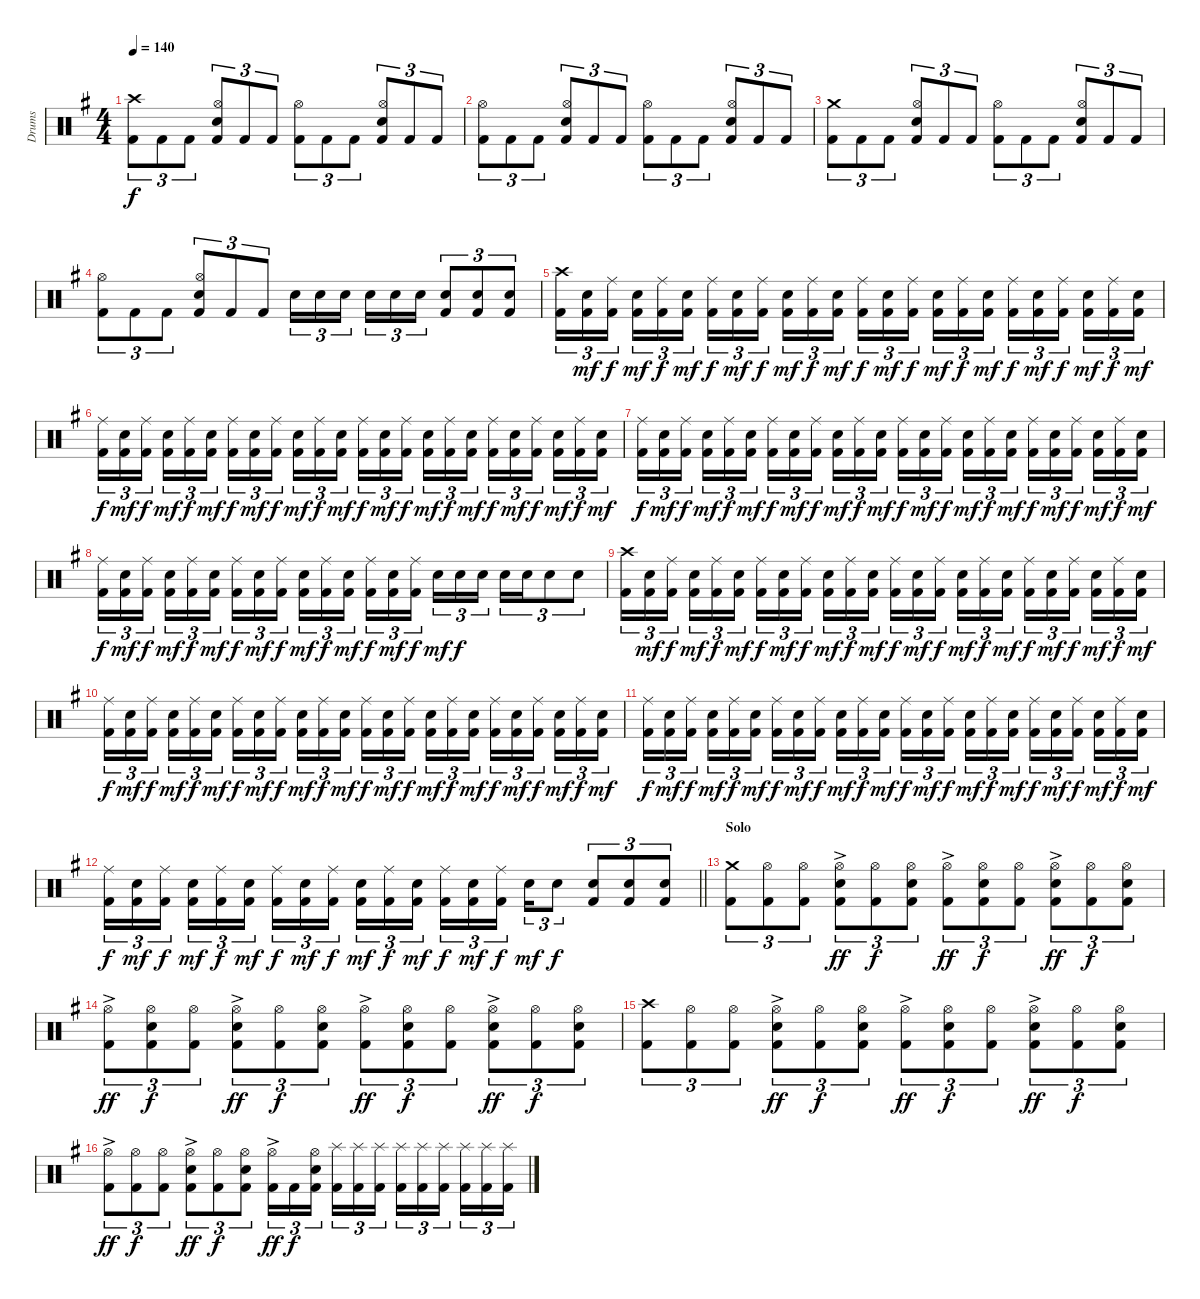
\track ("Drums" "Drums") {instrument percussion}
\staff {score}
\articulation defaults
\ts (4 4)
\tempo 140
\clef neutral
\ks eminor
("Crash high (hit)" "Kick (hit) 2").8{tu (3 2) dy f} "Kick (hit) 2".8{tu (3 2)} "Kick (hit) 2".8{tu (3 2)} ("Hi-Hat (open)" "Electric Snare (hit)" "Kick (hit) 2").8{tu (3 2)} "Kick (hit) 2".8{tu (3 2)} "Kick (hit) 2".8{tu (3 2)} ("Hi-Hat (open)" "Kick (hit) 2").8{tu (3 2)} "Kick (hit) 2".8{tu (3 2)} "Kick (hit) 2".8{tu (3 2)} ("Hi-Hat (open)" "Electric Snare (hit)" "Kick (hit) 2").8{tu (3 2)} "Kick (hit) 2".8{tu (3 2)} "Kick (hit) 2".8{tu (3 2)} |
("Hi-Hat (open)" "Kick (hit) 2").8{tu (3 2)} "Kick (hit) 2".8{tu (3 2)} "Kick (hit) 2".8{tu (3 2)} ("Hi-Hat (open)" "Electric Snare (hit)" "Kick (hit) 2").8{tu (3 2)} "Kick (hit) 2".8{tu (3 2)} "Kick (hit) 2".8{tu (3 2)} ("Hi-Hat (open)" "Kick (hit) 2").8{tu (3 2)} "Kick (hit) 2".8{tu (3 2)} "Kick (hit) 2".8{tu (3 2)} ("Hi-Hat (open)" "Electric Snare (hit)" "Kick (hit) 2").8{tu (3 2)} "Kick (hit) 2".8{tu (3 2)} "Kick (hit) 2".8{tu (3 2)} |
("Crash medium (hit)" "Kick (hit) 2").8{tu (3 2)} "Kick (hit) 2".8{tu (3 2)} "Kick (hit) 2".8{tu (3 2)} ("Hi-Hat (open)" "Electric Snare (hit)" "Kick (hit) 2").8{tu (3 2)} "Kick (hit) 2".8{tu (3 2)} "Kick (hit) 2".8{tu (3 2)} ("Hi-Hat (open)" "Kick (hit) 2").8{tu (3 2)} "Kick (hit) 2".8{tu (3 2)} "Kick (hit) 2".8{tu (3 2)} ("Hi-Hat (open)" "Electric Snare (hit)" "Kick (hit) 2").8{tu (3 2)} "Kick (hit) 2".8{tu (3 2)} "Kick (hit) 2".8{tu (3 2)} |
("Hi-Hat (open)" "Kick (hit) 2").8{tu (3 2)} "Kick (hit) 2".8{tu (3 2)} "Kick (hit) 2".8{tu (3 2)} ("Hi-Hat (open)" "Electric Snare (hit)" "Kick (hit) 2").8{tu (3 2)} "Kick (hit) 2".8{tu (3 2)} "Kick (hit) 2".8{tu (3 2)} "Electric Snare (hit)".16{tu (3 2)} "Electric Snare (hit)".16{tu (3 2)} "Electric Snare (hit)".16{tu (3 2) beam splitsecondary} "Electric Snare (hit)".16{tu (3 2)} "Electric Snare (hit)".16{tu (3 2)} "Electric Snare (hit)".16{tu (3 2)} ("Electric Snare (hit)" "Kick (hit) 2").8{tu (3 2)} ("Electric Snare (hit)" "Kick (hit) 2").8{tu (3 2)} ("Electric Snare (hit)" "Kick (hit) 2").8{tu (3 2)} |
("Crash high (hit)" "Kick (hit) 2").16{tu (3 2)} ("Electric Snare (hit)" "Kick (hit) 2").16{tu (3 2) dy mf} ("Ride (middle)" "Kick (hit) 2").16{tu (3 2) dy f beam splitsecondary} ("Electric Snare (hit)" "Kick (hit) 2").16{tu (3 2) dy mf} ("Ride (middle)" "Kick (hit) 2").16{tu (3 2) dy f} ("Electric Snare (hit)" "Kick (hit) 2").16{tu (3 2) dy mf} ("Ride (middle)" "Kick (hit) 2").16{tu (3 2) dy f} ("Electric Snare (hit)" "Kick (hit) 2").16{tu (3 2) dy mf} ("Ride (middle)" "Kick (hit) 2").16{tu (3 2) dy f beam splitsecondary} ("Electric Snare (hit)" "Kick (hit) 2").16{tu (3 2) dy mf} ("Ride (middle)" "Kick (hit) 2").16{tu (3 2) dy f} ("Electric Snare (hit)" "Kick (hit) 2").16{tu (3 2) dy mf} ("Ride (middle)" "Kick (hit) 2").16{tu (3 2) dy f} ("Electric Snare (hit)" "Kick (hit) 2").16{tu (3 2) dy mf} ("Ride (middle)" "Kick (hit) 2").16{tu (3 2) dy f beam splitsecondary} ("Electric Snare (hit)" "Kick (hit) 2").16{tu (3 2) dy mf} ("Ride (middle)" "Kick (hit) 2").16{tu (3 2) dy f} ("Electric Snare (hit)" "Kick (hit) 2").16{tu (3 2) dy mf} ("Ride (middle)" "Kick (hit) 2").16{tu (3 2) dy f} ("Electric Snare (hit)" "Kick (hit) 2").16{tu (3 2) dy mf} ("Ride (middle)" "Kick (hit) 2").16{tu (3 2) dy f beam splitsecondary} ("Electric Snare (hit)" "Kick (hit) 2").16{tu (3 2) dy mf} ("Ride (middle)" "Kick (hit) 2").16{tu (3 2) dy f} ("Electric Snare (hit)" "Kick (hit) 2").16{tu (3 2) dy mf} |
("Ride (middle)" "Kick (hit) 2").16{tu (3 2) dy f} ("Electric Snare (hit)" "Kick (hit) 2").16{tu (3 2) dy mf} ("Ride (middle)" "Kick (hit) 2").16{tu (3 2) dy f beam splitsecondary} ("Electric Snare (hit)" "Kick (hit) 2").16{tu (3 2) dy mf} ("Ride (middle)" "Kick (hit) 2").16{tu (3 2) dy f} ("Electric Snare (hit)" "Kick (hit) 2").16{tu (3 2) dy mf} ("Ride (middle)" "Kick (hit) 2").16{tu (3 2) dy f} ("Electric Snare (hit)" "Kick (hit) 2").16{tu (3 2) dy mf} ("Ride (middle)" "Kick (hit) 2").16{tu (3 2) dy f beam splitsecondary} ("Electric Snare (hit)" "Kick (hit) 2").16{tu (3 2) dy mf} ("Ride (middle)" "Kick (hit) 2").16{tu (3 2) dy f} ("Electric Snare (hit)" "Kick (hit) 2").16{tu (3 2) dy mf} ("Ride (middle)" "Kick (hit) 2").16{tu (3 2) dy f} ("Electric Snare (hit)" "Kick (hit) 2").16{tu (3 2) dy mf} ("Ride (middle)" "Kick (hit) 2").16{tu (3 2) dy f beam splitsecondary} ("Electric Snare (hit)" "Kick (hit) 2").16{tu (3 2) dy mf} ("Ride (middle)" "Kick (hit) 2").16{tu (3 2) dy f} ("Electric Snare (hit)" "Kick (hit) 2").16{tu (3 2) dy mf} ("Ride (middle)" "Kick (hit) 2").16{tu (3 2) dy f} ("Electric Snare (hit)" "Kick (hit) 2").16{tu (3 2) dy mf} ("Ride (middle)" "Kick (hit) 2").16{tu (3 2) dy f beam splitsecondary} ("Electric Snare (hit)" "Kick (hit) 2").16{tu (3 2) dy mf} ("Ride (middle)" "Kick (hit) 2").16{tu (3 2) dy f} ("Electric Snare (hit)" "Kick (hit) 2").16{tu (3 2) dy mf} |
("Ride (middle)" "Kick (hit) 2").16{tu (3 2) dy f} ("Electric Snare (hit)" "Kick (hit) 2").16{tu (3 2) dy mf} ("Ride (middle)" "Kick (hit) 2").16{tu (3 2) dy f beam splitsecondary} ("Electric Snare (hit)" "Kick (hit) 2").16{tu (3 2) dy mf} ("Ride (middle)" "Kick (hit) 2").16{tu (3 2) dy f} ("Electric Snare (hit)" "Kick (hit) 2").16{tu (3 2) dy mf} ("Ride (middle)" "Kick (hit) 2").16{tu (3 2) dy f} ("Electric Snare (hit)" "Kick (hit) 2").16{tu (3 2) dy mf} ("Ride (middle)" "Kick (hit) 2").16{tu (3 2) dy f beam splitsecondary} ("Electric Snare (hit)" "Kick (hit) 2").16{tu (3 2) dy mf} ("Ride (middle)" "Kick (hit) 2").16{tu (3 2) dy f} ("Electric Snare (hit)" "Kick (hit) 2").16{tu (3 2) dy mf} ("Ride (middle)" "Kick (hit) 2").16{tu (3 2) dy f} ("Electric Snare (hit)" "Kick (hit) 2").16{tu (3 2) dy mf} ("Ride (middle)" "Kick (hit) 2").16{tu (3 2) dy f beam splitsecondary} ("Electric Snare (hit)" "Kick (hit) 2").16{tu (3 2) dy mf} ("Ride (middle)" "Kick (hit) 2").16{tu (3 2) dy f} ("Electric Snare (hit)" "Kick (hit) 2").16{tu (3 2) dy mf} ("Ride (middle)" "Kick (hit) 2").16{tu (3 2) dy f} ("Electric Snare (hit)" "Kick (hit) 2").16{tu (3 2) dy mf} ("Ride (middle)" "Kick (hit) 2").16{tu (3 2) dy f beam splitsecondary} ("Electric Snare (hit)" "Kick (hit) 2").16{tu (3 2) dy mf} ("Ride (middle)" "Kick (hit) 2").16{tu (3 2) dy f} ("Electric Snare (hit)" "Kick (hit) 2").16{tu (3 2) dy mf} |
("Ride (middle)" "Kick (hit) 2").16{tu (3 2) dy f} ("Electric Snare (hit)" "Kick (hit) 2").16{tu (3 2) dy mf} ("Ride (middle)" "Kick (hit) 2").16{tu (3 2) dy f beam splitsecondary} ("Electric Snare (hit)" "Kick (hit) 2").16{tu (3 2) dy mf} ("Ride (middle)" "Kick (hit) 2").16{tu (3 2) dy f} ("Electric Snare (hit)" "Kick (hit) 2").16{tu (3 2) dy mf} ("Ride (middle)" "Kick (hit) 2").16{tu (3 2) dy f} ("Electric Snare (hit)" "Kick (hit) 2").16{tu (3 2) dy mf} ("Ride (middle)" "Kick (hit) 2").16{tu (3 2) dy f beam splitsecondary} ("Electric Snare (hit)" "Kick (hit) 2").16{tu (3 2) dy mf} ("Ride (middle)" "Kick (hit) 2").16{tu (3 2) dy f} ("Electric Snare (hit)" "Kick (hit) 2").16{tu (3 2) dy mf} ("Ride (middle)" "Kick (hit) 2").16{tu (3 2) dy f} ("Electric Snare (hit)" "Kick (hit) 2").16{tu (3 2) dy mf} ("Ride (middle)" "Kick (hit) 2").16{tu (3 2) dy f beam splitsecondary} "Electric Snare (hit)".16{tu (3 2) dy mf} "Electric Snare (hit)".16{tu (3 2) dy f} "Electric Snare (hit)".16{tu (3 2)} "Electric Snare (hit)".16{tu (3 2)} "Electric Snare (hit)".16{tu (3 2)} "Electric Snare (hit)".8{tu (3 2)} "Electric Snare (hit)".8{tu (3 2)} |
("Crash high (hit)" "Kick (hit) 2").16{tu (3 2)} ("Electric Snare (hit)" "Kick (hit) 2").16{tu (3 2) dy mf} ("Ride (middle)" "Kick (hit) 2").16{tu (3 2) dy f beam splitsecondary} ("Electric Snare (hit)" "Kick (hit) 2").16{tu (3 2) dy mf} ("Ride (middle)" "Kick (hit) 2").16{tu (3 2) dy f} ("Electric Snare (hit)" "Kick (hit) 2").16{tu (3 2) dy mf} ("Ride (middle)" "Kick (hit) 2").16{tu (3 2) dy f} ("Electric Snare (hit)" "Kick (hit) 2").16{tu (3 2) dy mf} ("Ride (middle)" "Kick (hit) 2").16{tu (3 2) dy f beam splitsecondary} ("Electric Snare (hit)" "Kick (hit) 2").16{tu (3 2) dy mf} ("Ride (middle)" "Kick (hit) 2").16{tu (3 2) dy f} ("Electric Snare (hit)" "Kick (hit) 2").16{tu (3 2) dy mf} ("Ride (middle)" "Kick (hit) 2").16{tu (3 2) dy f} ("Electric Snare (hit)" "Kick (hit) 2").16{tu (3 2) dy mf} ("Ride (middle)" "Kick (hit) 2").16{tu (3 2) dy f beam splitsecondary} ("Electric Snare (hit)" "Kick (hit) 2").16{tu (3 2) dy mf} ("Ride (middle)" "Kick (hit) 2").16{tu (3 2) dy f} ("Electric Snare (hit)" "Kick (hit) 2").16{tu (3 2) dy mf} ("Ride (middle)" "Kick (hit) 2").16{tu (3 2) dy f} ("Electric Snare (hit)" "Kick (hit) 2").16{tu (3 2) dy mf} ("Ride (middle)" "Kick (hit) 2").16{tu (3 2) dy f beam splitsecondary} ("Electric Snare (hit)" "Kick (hit) 2").16{tu (3 2) dy mf} ("Ride (middle)" "Kick (hit) 2").16{tu (3 2) dy f} ("Electric Snare (hit)" "Kick (hit) 2").16{tu (3 2) dy mf} |
("Ride (middle)" "Kick (hit) 2").16{tu (3 2) dy f} ("Electric Snare (hit)" "Kick (hit) 2").16{tu (3 2) dy mf} ("Ride (middle)" "Kick (hit) 2").16{tu (3 2) dy f beam splitsecondary} ("Electric Snare (hit)" "Kick (hit) 2").16{tu (3 2) dy mf} ("Ride (middle)" "Kick (hit) 2").16{tu (3 2) dy f} ("Electric Snare (hit)" "Kick (hit) 2").16{tu (3 2) dy mf} ("Ride (middle)" "Kick (hit) 2").16{tu (3 2) dy f} ("Electric Snare (hit)" "Kick (hit) 2").16{tu (3 2) dy mf} ("Ride (middle)" "Kick (hit) 2").16{tu (3 2) dy f beam splitsecondary} ("Electric Snare (hit)" "Kick (hit) 2").16{tu (3 2) dy mf} ("Ride (middle)" "Kick (hit) 2").16{tu (3 2) dy f} ("Electric Snare (hit)" "Kick (hit) 2").16{tu (3 2) dy mf} ("Ride (middle)" "Kick (hit) 2").16{tu (3 2) dy f} ("Electric Snare (hit)" "Kick (hit) 2").16{tu (3 2) dy mf} ("Ride (middle)" "Kick (hit) 2").16{tu (3 2) dy f beam splitsecondary} ("Electric Snare (hit)" "Kick (hit) 2").16{tu (3 2) dy mf} ("Ride (middle)" "Kick (hit) 2").16{tu (3 2) dy f} ("Electric Snare (hit)" "Kick (hit) 2").16{tu (3 2) dy mf} ("Ride (middle)" "Kick (hit) 2").16{tu (3 2) dy f} ("Electric Snare (hit)" "Kick (hit) 2").16{tu (3 2) dy mf} ("Ride (middle)" "Kick (hit) 2").16{tu (3 2) dy f beam splitsecondary} ("Electric Snare (hit)" "Kick (hit) 2").16{tu (3 2) dy mf} ("Ride (middle)" "Kick (hit) 2").16{tu (3 2) dy f} ("Electric Snare (hit)" "Kick (hit) 2").16{tu (3 2) dy mf} |
("Ride (middle)" "Kick (hit) 2").16{tu (3 2) dy f} ("Electric Snare (hit)" "Kick (hit) 2").16{tu (3 2) dy mf} ("Ride (middle)" "Kick (hit) 2").16{tu (3 2) dy f beam splitsecondary} ("Electric Snare (hit)" "Kick (hit) 2").16{tu (3 2) dy mf} ("Ride (middle)" "Kick (hit) 2").16{tu (3 2) dy f} ("Electric Snare (hit)" "Kick (hit) 2").16{tu (3 2) dy mf} ("Ride (middle)" "Kick (hit) 2").16{tu (3 2) dy f} ("Electric Snare (hit)" "Kick (hit) 2").16{tu (3 2) dy mf} ("Ride (middle)" "Kick (hit) 2").16{tu (3 2) dy f beam splitsecondary} ("Electric Snare (hit)" "Kick (hit) 2").16{tu (3 2) dy mf} ("Ride (middle)" "Kick (hit) 2").16{tu (3 2) dy f} ("Electric Snare (hit)" "Kick (hit) 2").16{tu (3 2) dy mf} ("Ride (middle)" "Kick (hit) 2").16{tu (3 2) dy f} ("Electric Snare (hit)" "Kick (hit) 2").16{tu (3 2) dy mf} ("Ride (middle)" "Kick (hit) 2").16{tu (3 2) dy f beam splitsecondary} ("Electric Snare (hit)" "Kick (hit) 2").16{tu (3 2) dy mf} ("Ride (middle)" "Kick (hit) 2").16{tu (3 2) dy f} ("Electric Snare (hit)" "Kick (hit) 2").16{tu (3 2) dy mf} ("Ride (middle)" "Kick (hit) 2").16{tu (3 2) dy f} ("Electric Snare (hit)" "Kick (hit) 2").16{tu (3 2) dy mf} ("Ride (middle)" "Kick (hit) 2").16{tu (3 2) dy f beam splitsecondary} ("Electric Snare (hit)" "Kick (hit) 2").16{tu (3 2) dy mf} ("Ride (middle)" "Kick (hit) 2").16{tu (3 2) dy f} ("Electric Snare (hit)" "Kick (hit) 2").16{tu (3 2) dy mf} |
\barLineRight lightlight
("Ride (middle)" "Kick (hit) 2").16{tu (3 2) dy f} ("Electric Snare (hit)" "Kick (hit) 2").16{tu (3 2) dy mf} ("Ride (middle)" "Kick (hit) 2").16{tu (3 2) dy f beam splitsecondary} ("Electric Snare (hit)" "Kick (hit) 2").16{tu (3 2) dy mf} ("Ride (middle)" "Kick (hit) 2").16{tu (3 2) dy f} ("Electric Snare (hit)" "Kick (hit) 2").16{tu (3 2) dy mf} ("Ride (middle)" "Kick (hit) 2").16{tu (3 2) dy f} ("Electric Snare (hit)" "Kick (hit) 2").16{tu (3 2) dy mf} ("Ride (middle)" "Kick (hit) 2").16{tu (3 2) dy f beam splitsecondary} ("Electric Snare (hit)" "Kick (hit) 2").16{tu (3 2) dy mf} ("Ride (middle)" "Kick (hit) 2").16{tu (3 2) dy f} ("Electric Snare (hit)" "Kick (hit) 2").16{tu (3 2) dy mf} ("Ride (middle)" "Kick (hit) 2").16{tu (3 2) dy f} ("Electric Snare (hit)" "Kick (hit) 2").16{tu (3 2) dy mf} ("Ride (middle)" "Kick (hit) 2").16{tu (3 2) dy f beam splitsecondary} "Electric Snare (hit)".16{tu (3 2) dy mf} "Electric Snare (hit)".8{tu (3 2) dy f} ("Electric Snare (hit)" "Kick (hit) 2").8{tu (3 2)} ("Electric Snare (hit)" "Kick (hit) 2").8{tu (3 2)} ("Electric Snare (hit)" "Kick (hit) 2").8{tu (3 2)} |
\section ("" "Solo")
("Crash medium (hit)" "Kick (hit) 2").8{tu (3 2)} ("Hi-Hat (open)" "Kick (hit) 2").8{tu (3 2)} ("Hi-Hat (open)" "Kick (hit) 2").8{tu (3 2)} ("Hi-Hat (open)"{ac} "Electric Snare (hit)" "Kick (hit) 2").8{tu (3 2) dy ff} ("Hi-Hat (open)" "Kick (hit) 2").8{tu (3 2) dy f} ("Hi-Hat (open)" "Electric Snare (hit)" "Kick (hit) 2").8{tu (3 2)} ("Hi-Hat (open)"{ac} "Kick (hit) 2").8{tu (3 2) dy ff} ("Hi-Hat (open)" "Electric Snare (hit)" "Kick (hit) 2").8{tu (3 2) dy f} ("Hi-Hat (open)" "Kick (hit) 2").8{tu (3 2)} ("Hi-Hat (open)"{ac} "Electric Snare (hit)" "Kick (hit) 2").8{tu (3 2) dy ff} ("Hi-Hat (open)" "Kick (hit) 2").8{tu (3 2) dy f} ("Hi-Hat (open)" "Electric Snare (hit)" "Kick (hit) 2").8{tu (3 2)} |
("Hi-Hat (open)"{ac} "Kick (hit) 2").8{tu (3 2) dy ff} ("Hi-Hat (open)" "Electric Snare (hit)" "Kick (hit) 2").8{tu (3 2) dy f} ("Hi-Hat (open)" "Kick (hit) 2").8{tu (3 2)} ("Hi-Hat (open)"{ac} "Electric Snare (hit)" "Kick (hit) 2").8{tu (3 2) dy ff} ("Hi-Hat (open)" "Kick (hit) 2").8{tu (3 2) dy f} ("Hi-Hat (open)" "Electric Snare (hit)" "Kick (hit) 2").8{tu (3 2)} ("Hi-Hat (open)"{ac} "Kick (hit) 2").8{tu (3 2) dy ff} ("Hi-Hat (open)" "Electric Snare (hit)" "Kick (hit) 2").8{tu (3 2) dy f} ("Hi-Hat (open)" "Kick (hit) 2").8{tu (3 2)} ("Hi-Hat (open)"{ac} "Electric Snare (hit)" "Kick (hit) 2").8{tu (3 2) dy ff} ("Hi-Hat (open)" "Kick (hit) 2").8{tu (3 2) dy f} ("Hi-Hat (open)" "Electric Snare (hit)" "Kick (hit) 2").8{tu (3 2)} |
("Crash high (hit)" "Kick (hit) 2").8{tu (3 2)} ("Hi-Hat (open)" "Kick (hit) 2").8{tu (3 2)} ("Hi-Hat (open)" "Kick (hit) 2").8{tu (3 2)} ("Hi-Hat (open)"{ac} "Electric Snare (hit)" "Kick (hit) 2").8{tu (3 2) dy ff} ("Hi-Hat (open)" "Kick (hit) 2").8{tu (3 2) dy f} ("Hi-Hat (open)" "Electric Snare (hit)" "Kick (hit) 2").8{tu (3 2)} ("Hi-Hat (open)"{ac} "Kick (hit) 2").8{tu (3 2) dy ff} ("Hi-Hat (open)" "Electric Snare (hit)" "Kick (hit) 2").8{tu (3 2) dy f} ("Hi-Hat (open)" "Kick (hit) 2").8{tu (3 2)} ("Hi-Hat (open)"{ac} "Electric Snare (hit)" "Kick (hit) 2").8{tu (3 2) dy ff} ("Hi-Hat (open)" "Kick (hit) 2").8{tu (3 2) dy f} ("Hi-Hat (open)" "Electric Snare (hit)" "Kick (hit) 2").8{tu (3 2)} |
("Hi-Hat (open)"{ac} "Kick (hit) 2").8{tu (3 2) dy ff} ("Hi-Hat (open)" "Kick (hit) 2").8{tu (3 2) dy f} ("Hi-Hat (open)" "Kick (hit) 2").8{tu (3 2)} ("Hi-Hat (open)"{ac} "Electric Snare (hit)" "Kick (hit) 2").8{tu (3 2) dy ff} ("Hi-Hat (open)" "Kick (hit) 2").8{tu (3 2) dy f} ("Hi-Hat (open)" "Electric Snare (hit)" "Kick (hit) 2").8{tu (3 2)} ("Hi-Hat (open)"{ac} "Kick (hit) 2").16{tu (3 2) dy ff} "Kick (hit) 2".16{tu (3 2) dy f} ("Hi-Hat (open)" "Electric Snare (hit)" "Kick (hit) 2").16{tu (3 2) beam splitsecondary} ("Splash (hit)" "Kick (hit) 2").16{tu (3 2)} ("Splash (hit)" "Kick (hit) 2").16{tu (3 2)} ("Splash (hit)" "Kick (hit) 2").16{tu (3 2)} ("Splash (hit)" "Kick (hit) 2").16{tu (3 2)} ("Splash (hit)" "Kick (hit) 2").16{tu (3 2)} ("Splash (hit)" "Kick (hit) 2").16{tu (3 2) beam splitsecondary} ("Splash (hit)" "Kick (hit) 2").16{tu (3 2)} ("Splash (hit)" "Kick (hit) 2").16{tu (3 2)} ("Splash (hit)" "Kick (hit) 2").16{tu (3 2)}
